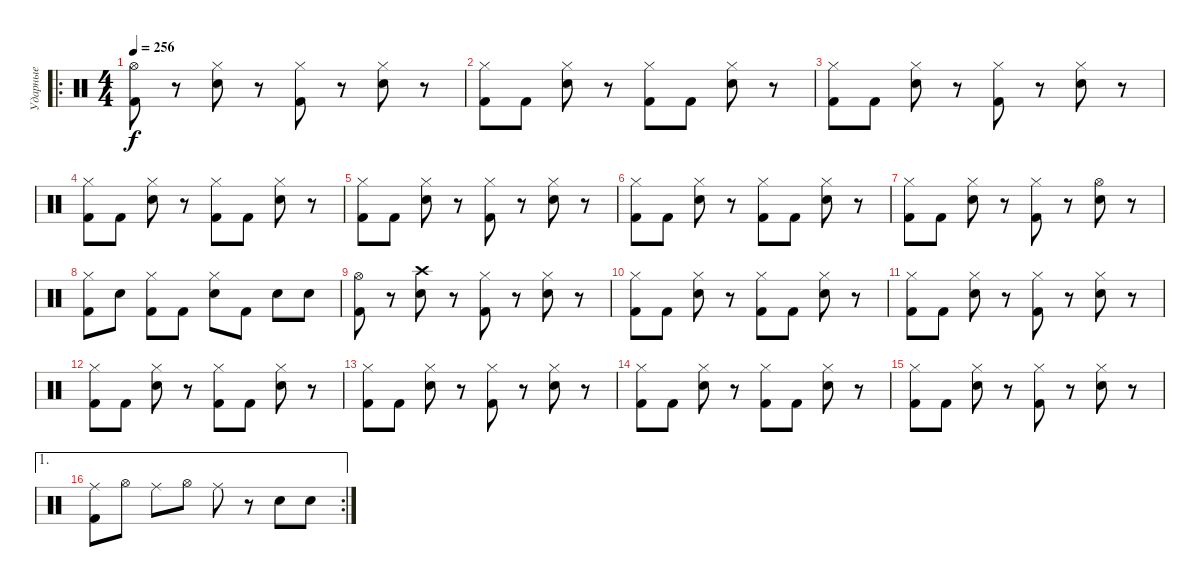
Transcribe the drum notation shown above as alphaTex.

\track ("Ударные" "Ударные") {instrument percussion}
\staff {score}
\articulation defaults
\ro
\ts (4 4)
\tempo 256
\clef neutral
\ks c
("Hi-Hat (open)" "Kick (hit) 2").8{dy f} r.8 ("Hi-Hat (closed)" "Electric Snare (hit)").8 r.8 ("Hi-Hat (closed)" "Kick (hit) 2").8 r.8 ("Hi-Hat (closed)" "Electric Snare (hit)").8 r.8 |
("Hi-Hat (closed)" "Kick (hit) 2").8 "Kick (hit) 2".8 ("Hi-Hat (closed)" "Electric Snare (hit)").8 r.8 ("Hi-Hat (closed)" "Kick (hit) 2").8 "Kick (hit) 2".8 ("Hi-Hat (closed)" "Electric Snare (hit)").8 r.8 |
("Hi-Hat (closed)" "Kick (hit) 2").8 "Kick (hit) 2".8 ("Hi-Hat (closed)" "Electric Snare (hit)").8 r.8 ("Hi-Hat (closed)" "Kick (hit) 2").8 r.8 ("Hi-Hat (closed)" "Electric Snare (hit)").8 r.8 |
("Hi-Hat (closed)" "Kick (hit) 2").8 "Kick (hit) 2".8 ("Hi-Hat (closed)" "Electric Snare (hit)").8 r.8 ("Hi-Hat (closed)" "Kick (hit) 2").8 "Kick (hit) 2".8 ("Hi-Hat (closed)" "Electric Snare (hit)").8 r.8 |
("Hi-Hat (closed)" "Kick (hit) 2").8 "Kick (hit) 2".8 ("Hi-Hat (closed)" "Electric Snare (hit)").8 r.8 ("Hi-Hat (closed)" "Kick (hit) 2").8 r.8 ("Hi-Hat (closed)" "Electric Snare (hit)").8 r.8 |
("Hi-Hat (closed)" "Kick (hit) 2").8 "Kick (hit) 2".8 ("Hi-Hat (closed)" "Electric Snare (hit)").8 r.8 ("Hi-Hat (closed)" "Kick (hit) 2").8 "Kick (hit) 2".8 ("Hi-Hat (closed)" "Electric Snare (hit)").8 r.8 |
("Hi-Hat (closed)" "Kick (hit) 2").8 "Kick (hit) 2".8 ("Hi-Hat (closed)" "Electric Snare (hit)").8 r.8 ("Hi-Hat (closed)" "Kick (hit) 2").8 r.8 ("Hi-Hat (open)" "Electric Snare (hit)").8 r.8 |
("Hi-Hat (closed)" "Kick (hit) 2").8 "Electric Snare (hit)".8 ("Hi-Hat (closed)" "Kick (hit) 2").8 "Kick (hit) 2".8 ("Hi-Hat (closed)" "Electric Snare (hit)").8 "Kick (hit) 2".8 "Electric Snare (hit)".8 "Electric Snare (hit)".8 |
("Hi-Hat (open)" "Kick (hit) 2").8 r.8 ("Crash high (hit)" "Electric Snare (hit)").8 r.8 ("Hi-Hat (closed)" "Kick (hit) 2").8 r.8 ("Hi-Hat (closed)" "Electric Snare (hit)").8 r.8 |
("Hi-Hat (closed)" "Kick (hit) 2").8 "Kick (hit) 2".8 ("Hi-Hat (closed)" "Electric Snare (hit)").8 r.8 ("Hi-Hat (closed)" "Kick (hit) 2").8 "Kick (hit) 2".8 ("Hi-Hat (closed)" "Electric Snare (hit)").8 r.8 |
("Hi-Hat (closed)" "Kick (hit) 2").8 "Kick (hit) 2".8 ("Hi-Hat (closed)" "Electric Snare (hit)").8 r.8 ("Hi-Hat (closed)" "Kick (hit) 2").8 r.8 ("Hi-Hat (closed)" "Electric Snare (hit)").8 r.8 |
("Hi-Hat (closed)" "Kick (hit) 2").8 "Kick (hit) 2".8 ("Hi-Hat (closed)" "Electric Snare (hit)").8 r.8 ("Hi-Hat (closed)" "Kick (hit) 2").8 "Kick (hit) 2".8 ("Hi-Hat (closed)" "Electric Snare (hit)").8 r.8 |
("Hi-Hat (closed)" "Kick (hit) 2").8 "Kick (hit) 2".8 ("Hi-Hat (closed)" "Electric Snare (hit)").8 r.8 ("Hi-Hat (closed)" "Kick (hit) 2").8 r.8 ("Hi-Hat (closed)" "Electric Snare (hit)").8 r.8 |
("Hi-Hat (closed)" "Kick (hit) 2").8 "Kick (hit) 2".8 ("Hi-Hat (closed)" "Electric Snare (hit)").8 r.8 ("Hi-Hat (closed)" "Kick (hit) 2").8 "Kick (hit) 2".8 ("Hi-Hat (closed)" "Electric Snare (hit)").8 r.8 |
("Hi-Hat (closed)" "Kick (hit) 2").8 "Kick (hit) 2".8 ("Hi-Hat (closed)" "Electric Snare (hit)").8 r.8 ("Hi-Hat (closed)" "Kick (hit) 2").8 r.8 ("Hi-Hat (closed)" "Electric Snare (hit)").8 r.8 |
\ae 1
\rc 2
("Ride (middle)" "Kick (hit) 2").8 "Hi-Hat (open)".8 "Ride (middle)".8 "Hi-Hat (open)".8 "Ride (middle)".8 r.8 "Electric Snare (hit)".8 "Electric Snare (hit)".8
